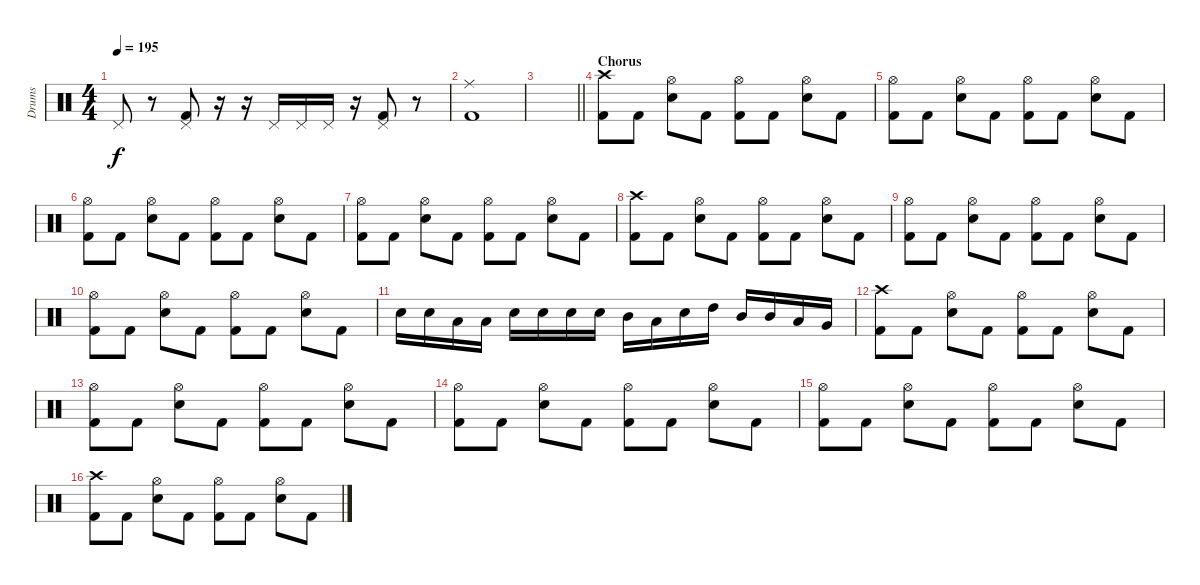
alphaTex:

\track ("Drums" "Drums") {instrument percussion}
\staff {score}
\articulation defaults
\ts (4 4)
\tempo 195
\clef neutral
\ks c "Pedal Hi-Hat (hit)".8{dy f}
r.8 ("Pedal Hi-Hat (hit)" "Kick (hit) 2").8 r.16 r.16 "Pedal Hi-Hat (hit)".16 "Pedal Hi-Hat (hit)".16 "Pedal Hi-Hat (hit)".16 r.16 ("Pedal Hi-Hat (hit)" "Kick (hit) 2").8 r.8 |
("Ride (middle)" "Kick (hit) 2").1 |
\barLineRight lightlight
|
\section ("" "Chorus")
("Crash high (hit)" "Kick (hit) 2").8 "Kick (hit) 2".8 ("Hi-Hat (open)" "Electric Snare (hit)").8 "Kick (hit) 2".8 ("Hi-Hat (open)" "Kick (hit) 2").8 "Kick (hit) 2".8 ("Hi-Hat (open)" "Electric Snare (hit)").8 "Kick (hit) 2".8 |
("Hi-Hat (open)" "Kick (hit) 2").8 "Kick (hit) 2".8 ("Hi-Hat (open)" "Electric Snare (hit)").8 "Kick (hit) 2".8 ("Hi-Hat (open)" "Kick (hit) 2").8 "Kick (hit) 2".8 ("Hi-Hat (open)" "Electric Snare (hit)").8 "Kick (hit) 2".8 |
("Hi-Hat (open)" "Kick (hit) 2").8 "Kick (hit) 2".8 ("Hi-Hat (open)" "Electric Snare (hit)").8 "Kick (hit) 2".8 ("Hi-Hat (open)" "Kick (hit) 2").8 "Kick (hit) 2".8 ("Hi-Hat (open)" "Electric Snare (hit)").8 "Kick (hit) 2".8 |
("Hi-Hat (open)" "Kick (hit) 2").8 "Kick (hit) 2".8 ("Hi-Hat (open)" "Electric Snare (hit)").8 "Kick (hit) 2".8 ("Hi-Hat (open)" "Kick (hit) 2").8 "Kick (hit) 2".8 ("Hi-Hat (open)" "Electric Snare (hit)").8 "Kick (hit) 2".8 |
("Crash high (hit)" "Kick (hit) 2").8 "Kick (hit) 2".8 ("Hi-Hat (open)" "Electric Snare (hit)").8 "Kick (hit) 2".8 ("Hi-Hat (open)" "Kick (hit) 2").8 "Kick (hit) 2".8 ("Hi-Hat (open)" "Electric Snare (hit)").8 "Kick (hit) 2".8 |
("Hi-Hat (open)" "Kick (hit) 2").8 "Kick (hit) 2".8 ("Hi-Hat (open)" "Electric Snare (hit)").8 "Kick (hit) 2".8 ("Hi-Hat (open)" "Kick (hit) 2").8 "Kick (hit) 2".8 ("Hi-Hat (open)" "Electric Snare (hit)").8 "Kick (hit) 2".8 |
("Hi-Hat (open)" "Kick (hit) 2").8 "Kick (hit) 2".8 ("Hi-Hat (open)" "Electric Snare (hit)").8 "Kick (hit) 2".8 ("Hi-Hat (open)" "Kick (hit) 2").8 "Kick (hit) 2".8 ("Hi-Hat (open)" "Electric Snare (hit)").8 "Kick (hit) 2".8 |
"Electric Snare (hit)".16 "Electric Snare (hit)".16 "Low Tom (hit)".16 "Low Tom (hit)".16 "Electric Snare (hit)".16 "Electric Snare (hit)".16 "Electric Snare (hit)".16 "Electric Snare (hit)".16 "Mid Tom (hit)".16 "Low Tom (hit)".16 "Electric Snare (hit)".16 "High Tom (hit)".16 "Mid Tom (hit)".16 "Mid Tom (hit)".16 "Low Tom (hit)".16 "Very Low Tom (hit)".16 |
("Crash high (hit)" "Kick (hit) 2").8 "Kick (hit) 2".8 ("Hi-Hat (open)" "Electric Snare (hit)").8 "Kick (hit) 2".8 ("Hi-Hat (open)" "Kick (hit) 2").8 "Kick (hit) 2".8 ("Hi-Hat (open)" "Electric Snare (hit)").8 "Kick (hit) 2".8 |
("Hi-Hat (open)" "Kick (hit) 2").8 "Kick (hit) 2".8 ("Hi-Hat (open)" "Electric Snare (hit)").8 "Kick (hit) 2".8 ("Hi-Hat (open)" "Kick (hit) 2").8 "Kick (hit) 2".8 ("Hi-Hat (open)" "Electric Snare (hit)").8 "Kick (hit) 2".8 |
("Hi-Hat (open)" "Kick (hit) 2").8 "Kick (hit) 2".8 ("Hi-Hat (open)" "Electric Snare (hit)").8 "Kick (hit) 2".8 ("Hi-Hat (open)" "Kick (hit) 2").8 "Kick (hit) 2".8 ("Hi-Hat (open)" "Electric Snare (hit)").8 "Kick (hit) 2".8 |
("Hi-Hat (open)" "Kick (hit) 2").8 "Kick (hit) 2".8 ("Hi-Hat (open)" "Electric Snare (hit)").8 "Kick (hit) 2".8 ("Hi-Hat (open)" "Kick (hit) 2").8 "Kick (hit) 2".8 ("Hi-Hat (open)" "Electric Snare (hit)").8 "Kick (hit) 2".8 |
("Crash high (hit)" "Kick (hit) 2").8 "Kick (hit) 2".8 ("Hi-Hat (open)" "Electric Snare (hit)").8 "Kick (hit) 2".8 ("Hi-Hat (open)" "Kick (hit) 2").8 "Kick (hit) 2".8 ("Hi-Hat (open)" "Electric Snare (hit)").8 "Kick (hit) 2".8
